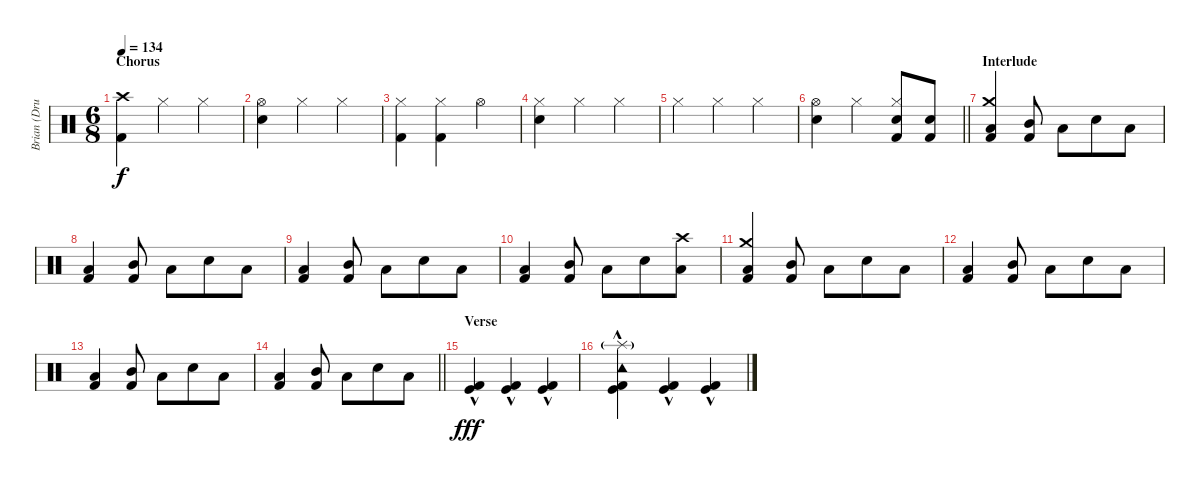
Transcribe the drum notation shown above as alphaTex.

\track ("Brian (Drums)" "Brian (Dru") {instrument percussion}
\staff {score}
\articulation defaults
\ts (6 8)
\section ("" "Chorus")
\tempo 134
\clef neutral
\ks c
("Crash high (hit)" "Kick (hit) 2").4{dy f} "Hi-Hat (closed)".4 "Hi-Hat (closed)".4 |
("Hi-Hat (open)" "Electric Snare (hit)").4 "Hi-Hat (closed)".4 "Hi-Hat (closed)".4 |
("Hi-Hat (closed)" "Kick (hit) 2").4 ("Hi-Hat (closed)" "Kick (hit) 2").4 "Hi-Hat (open)".4 |
("Hi-Hat (closed)" "Electric Snare (hit)").4 "Hi-Hat (closed)".4 "Hi-Hat (closed)".4 |
"Hi-Hat (closed)".4 "Hi-Hat (closed)".4 "Hi-Hat (closed)".4 |
\barLineRight lightlight
("Hi-Hat (open)" "Electric Snare (hit)").4 "Hi-Hat (closed)".4 ("Hi-Hat (closed)" "Electric Snare (hit)" "Kick (hit) 2").8 ("Electric Snare (hit)" "Kick (hit) 2").8 |
\section ("" "Interlude")
("Crash medium (hit)" "Low Tom (hit)" "Kick (hit) 2").4 ("Mid Tom (hit)" "Kick (hit) 2").8 "Low Tom (hit)".8 "Electric Snare (hit)".8 "Low Tom (hit)".8 |
("Low Tom (hit)" "Kick (hit) 2").4 ("Mid Tom (hit)" "Kick (hit) 2").8 "Low Tom (hit)".8 "Electric Snare (hit)".8 "Low Tom (hit)".8 |
("Low Tom (hit)" "Kick (hit) 2").4 ("Mid Tom (hit)" "Kick (hit) 2").8 "Low Tom (hit)".8 "Electric Snare (hit)".8 "Low Tom (hit)".8 |
("Low Tom (hit)" "Kick (hit) 2").4 ("Mid Tom (hit)" "Kick (hit) 2").8 "Low Tom (hit)".8 "Electric Snare (hit)".8 ("Crash high (hit)" "Low Tom (hit)").8 |
("Crash medium (hit)" "Low Tom (hit)" "Kick (hit) 2").4 ("Mid Tom (hit)" "Kick (hit) 2").8 "Low Tom (hit)".8 "Electric Snare (hit)".8 "Low Tom (hit)".8 |
("Low Tom (hit)" "Kick (hit) 2").4 ("Mid Tom (hit)" "Kick (hit) 2").8 "Low Tom (hit)".8 "Electric Snare (hit)".8 "Low Tom (hit)".8 |
("Low Tom (hit)" "Kick (hit) 2").4 ("Mid Tom (hit)" "Kick (hit) 2").8 "Low Tom (hit)".8 "Electric Snare (hit)".8 "Low Tom (hit)".8 |
\barLineRight lightlight
("Low Tom (hit)" "Kick (hit) 2").4 ("Mid Tom (hit)" "Kick (hit) 2").8 "Low Tom (hit)".8 "Electric Snare (hit)".8 "Low Tom (hit)".8 |
\section ("" "Verse")
("Kick (hit)" "Kick (hit) 2"{hac}).4{dy fff} ("Kick (hit)" "Kick (hit) 2"{hac}).4 ("Kick (hit)" "Kick (hit) 2"{hac}).4 |
("Tambourine (hit)" "Splash (hit)"{g} "Kick (hit)" "Kick (hit) 2"{hac}).4 ("Kick (hit)" "Kick (hit) 2"{hac}).4 ("Kick (hit)" "Kick (hit) 2"{hac}).4
